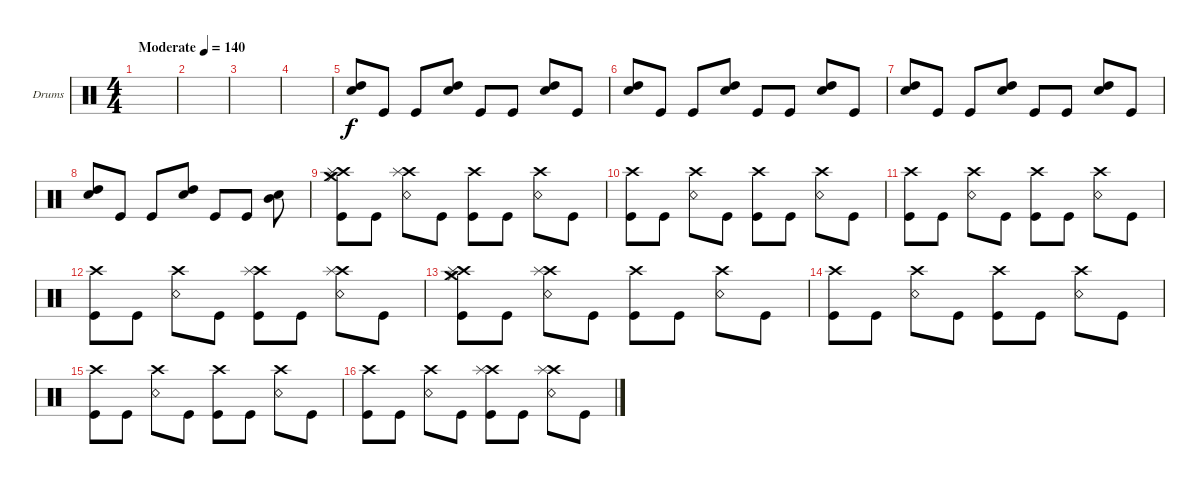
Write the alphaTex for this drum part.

\bracketExtendMode groupsimilarinstruments
\firstSystemTrackNameOrientation horizontal
\otherSystemsTrackNameOrientation horizontal
\track ("Da Kurlzz - Drums" "Drums") {instrument percussion}
\staff {score}
\articulation defaults
\ts (4 4)
\tempo (140 "Moderate")
\clef neutral
\ks c
|
|
|
|
("Snare (hit) 2" "High Tom (hit)").8 "Kick (hit)".8 "Kick (hit)".8 ("Snare (hit) 2" "High Tom (hit)").8 "Kick (hit)".8 "Kick (hit)".8 ("Snare (hit) 2" "High Tom (hit)").8 "Kick (hit)".8 |
("Snare (hit) 2" "High Tom (hit)").8 "Kick (hit)".8 "Kick (hit)".8 ("Snare (hit) 2" "High Tom (hit)").8 "Kick (hit)".8 "Kick (hit)".8 ("Snare (hit) 2" "High Tom (hit)").8 "Kick (hit)".8 |
("Snare (hit) 2" "High Tom (hit)").8 "Kick (hit)".8 "Kick (hit)".8 ("Snare (hit) 2" "High Tom (hit)").8 "Kick (hit)".8 "Kick (hit)".8 ("Snare (hit) 2" "High Tom (hit)").8 "Kick (hit)".8 |
("Snare (hit) 2" "High Tom (hit)").8 "Kick (hit)".8 "Kick (hit)".8 ("Snare (hit) 2" "High Tom (hit)").8 "Kick (hit)".8 "Kick (hit)".8 ("Snare (hit) 2" "Mid Tom (hit)").8 |
("Kick (hit)" "Crash high (hit)" "Crash medium (hit)" "Hi-Hat (closed)" "Splash (hit)").8 "Kick (hit)".8 ("Snare (rim shot)" "Crash high (hit)" "Splash (hit)").8 "Kick (hit)".8 ("Kick (hit)" "Crash high (hit)").8 "Kick (hit)".8 ("Snare (rim shot)" "Crash high (hit)").8 "Kick (hit)".8 |
("Kick (hit)" "Crash high (hit)").8 "Kick (hit)".8 ("Snare (rim shot)" "Crash high (hit)").8 "Kick (hit)".8 ("Kick (hit)" "Crash high (hit)").8 "Kick (hit)".8 ("Snare (rim shot)" "Crash high (hit)").8 "Kick (hit)".8 |
("Kick (hit)" "Crash high (hit)").8 "Kick (hit)".8 ("Snare (rim shot)" "Crash high (hit)").8 "Kick (hit)".8 ("Kick (hit)" "Crash high (hit)").8 "Kick (hit)".8 ("Snare (rim shot)" "Crash high (hit)").8 "Kick (hit)".8 |
("Kick (hit)" "Crash high (hit)").8 "Kick (hit)".8 ("Snare (rim shot)" "Crash high (hit)").8 "Kick (hit)".8 ("Kick (hit)" "Crash high (hit)" "Splash (hit)").8 "Kick (hit)".8 ("Snare (rim shot)" "Crash high (hit)" "Splash (hit)").8 "Kick (hit)".8 |
("Kick (hit)" "Crash high (hit)" "Crash medium (hit)" "Hi-Hat (closed)" "Splash (hit)").8 "Kick (hit)".8 ("Snare (rim shot)" "Crash high (hit)" "Splash (hit)").8 "Kick (hit)".8 ("Kick (hit)" "Crash high (hit)").8 "Kick (hit)".8 ("Snare (rim shot)" "Crash high (hit)").8 "Kick (hit)".8 |
("Kick (hit)" "Crash high (hit)").8 "Kick (hit)".8 ("Snare (rim shot)" "Crash high (hit)").8 "Kick (hit)".8 ("Kick (hit)" "Crash high (hit)").8 "Kick (hit)".8 ("Snare (rim shot)" "Crash high (hit)").8 "Kick (hit)".8 |
("Kick (hit)" "Crash high (hit)").8 "Kick (hit)".8 ("Snare (rim shot)" "Crash high (hit)").8 "Kick (hit)".8 ("Kick (hit)" "Crash high (hit)").8 "Kick (hit)".8 ("Snare (rim shot)" "Crash high (hit)").8 "Kick (hit)".8 |
("Kick (hit)" "Crash high (hit)").8 "Kick (hit)".8 ("Snare (rim shot)" "Crash high (hit)").8 "Kick (hit)".8 ("Kick (hit)" "Crash high (hit)" "Splash (hit)").8 "Kick (hit)".8 ("Snare (rim shot)" "Crash high (hit)" "Splash (hit)").8 "Kick (hit)".8
